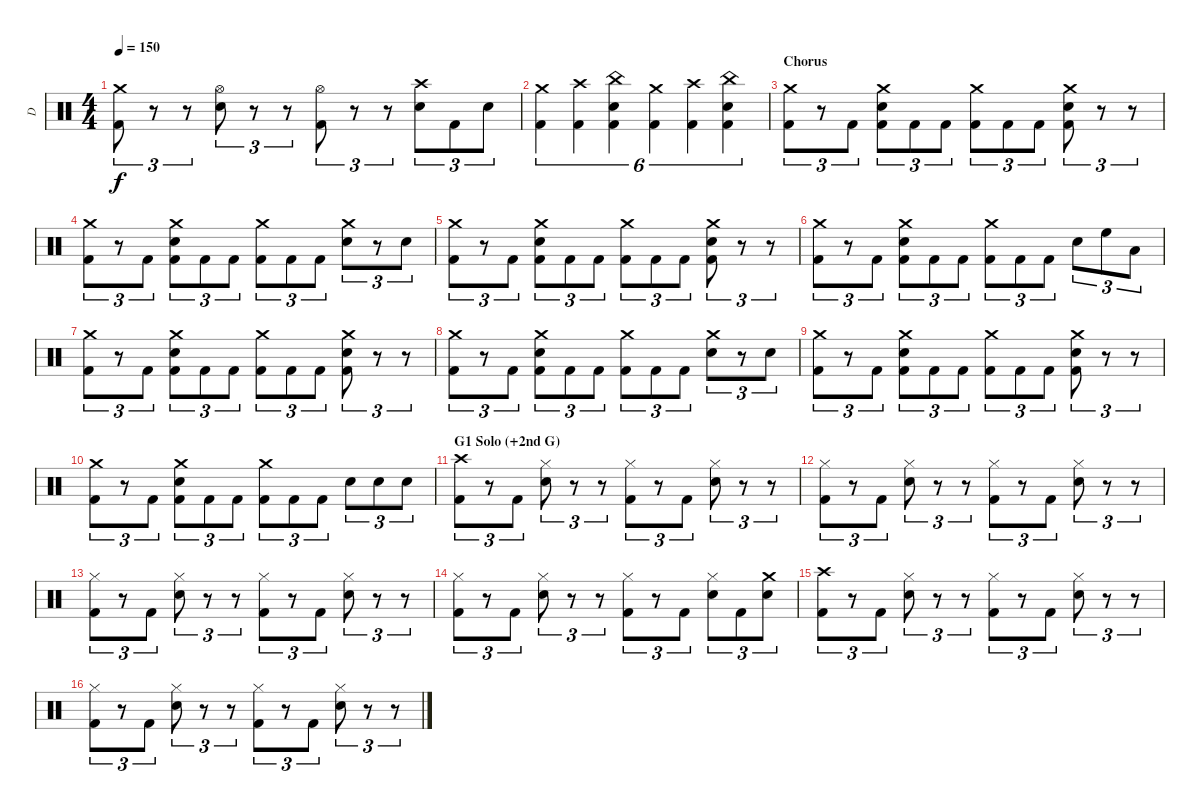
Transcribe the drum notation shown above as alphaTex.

\track ("D" "D") {instrument percussion}
\staff {score}
\articulation defaults
\ts (4 4)
\tempo 150
\clef neutral
\ks c
("Crash medium (hit)" "Kick (hit) 2").8{tu (3 2) dy f} r.8{tu (3 2)} r.8{tu (3 2)} ("Hi-Hat (open)" "Electric Snare (hit)").8{tu (3 2)} r.8{tu (3 2)} r.8{tu (3 2)} ("Hi-Hat (open)" "Kick (hit) 2").8{tu (3 2)} r.8{tu (3 2)} r.8{tu (3 2)} ("Crash high (hit)" "Electric Snare (hit)").8{tu (3 2)} "Kick (hit) 2".8{tu (3 2)} "Electric Snare (hit)".8{tu (3 2)} |
("Crash medium (hit)" "Kick (hit) 2").4{tu (6 4)} ("Crash high (hit)" "Kick (hit) 2").4{tu (6 4)} ("China (hit)" "Electric Snare (hit)" "Kick (hit) 2").4{tu (6 4)} ("Crash medium (hit)" "Kick (hit) 2").4{tu (6 4)} ("Crash high (hit)" "Kick (hit) 2").4{tu (6 4)} ("China (hit)" "Electric Snare (hit)" "Kick (hit) 2").4{tu (6 4)} |
\section ("" "Chorus")
("Crash medium (hit)" "Kick (hit) 2").8{tu (3 2)} r.8{tu (3 2)} "Kick (hit) 2".8{tu (3 2)} ("Crash medium (hit)" "Electric Snare (hit)" "Kick (hit) 2").8{tu (3 2)} "Kick (hit) 2".8{tu (3 2)} "Kick (hit) 2".8{tu (3 2)} ("Crash medium (hit)" "Kick (hit) 2").8{tu (3 2)} "Kick (hit) 2".8{tu (3 2)} "Kick (hit) 2".8{tu (3 2)} ("Crash medium (hit)" "Electric Snare (hit)" "Kick (hit) 2").8{tu (3 2)} r.8{tu (3 2)} r.8{tu (3 2)} |
("Crash medium (hit)" "Kick (hit) 2").8{tu (3 2)} r.8{tu (3 2)} "Kick (hit) 2".8{tu (3 2)} ("Crash medium (hit)" "Electric Snare (hit)" "Kick (hit) 2").8{tu (3 2)} "Kick (hit) 2".8{tu (3 2)} "Kick (hit) 2".8{tu (3 2)} ("Crash medium (hit)" "Kick (hit) 2").8{tu (3 2)} "Kick (hit) 2".8{tu (3 2)} "Kick (hit) 2".8{tu (3 2)} ("Crash medium (hit)" "Electric Snare (hit)").8{tu (3 2)} r.8{tu (3 2)} "Electric Snare (hit)".8{tu (3 2)} |
("Crash medium (hit)" "Kick (hit) 2").8{tu (3 2)} r.8{tu (3 2)} "Kick (hit) 2".8{tu (3 2)} ("Crash medium (hit)" "Electric Snare (hit)" "Kick (hit) 2").8{tu (3 2)} "Kick (hit) 2".8{tu (3 2)} "Kick (hit) 2".8{tu (3 2)} ("Crash medium (hit)" "Kick (hit) 2").8{tu (3 2)} "Kick (hit) 2".8{tu (3 2)} "Kick (hit) 2".8{tu (3 2)} ("Crash medium (hit)" "Electric Snare (hit)" "Kick (hit) 2").8{tu (3 2)} r.8{tu (3 2)} r.8{tu (3 2)} |
("Crash medium (hit)" "Kick (hit) 2").8{tu (3 2)} r.8{tu (3 2)} "Kick (hit) 2".8{tu (3 2)} ("Crash medium (hit)" "Electric Snare (hit)" "Kick (hit) 2").8{tu (3 2)} "Kick (hit) 2".8{tu (3 2)} "Kick (hit) 2".8{tu (3 2)} ("Crash medium (hit)" "Kick (hit) 2").8{tu (3 2)} "Kick (hit) 2".8{tu (3 2)} "Kick (hit) 2".8{tu (3 2)} "Electric Snare (hit)".8{tu (3 2)} "High Floor Tom (hit)".8{tu (3 2)} "Low Tom (hit)".8{tu (3 2)} |
("Crash medium (hit)" "Kick (hit) 2").8{tu (3 2)} r.8{tu (3 2)} "Kick (hit) 2".8{tu (3 2)} ("Crash medium (hit)" "Electric Snare (hit)" "Kick (hit) 2").8{tu (3 2)} "Kick (hit) 2".8{tu (3 2)} "Kick (hit) 2".8{tu (3 2)} ("Crash medium (hit)" "Kick (hit) 2").8{tu (3 2)} "Kick (hit) 2".8{tu (3 2)} "Kick (hit) 2".8{tu (3 2)} ("Crash medium (hit)" "Electric Snare (hit)" "Kick (hit) 2").8{tu (3 2)} r.8{tu (3 2)} r.8{tu (3 2)} |
("Crash medium (hit)" "Kick (hit) 2").8{tu (3 2)} r.8{tu (3 2)} "Kick (hit) 2".8{tu (3 2)} ("Crash medium (hit)" "Electric Snare (hit)" "Kick (hit) 2").8{tu (3 2)} "Kick (hit) 2".8{tu (3 2)} "Kick (hit) 2".8{tu (3 2)} ("Crash medium (hit)" "Kick (hit) 2").8{tu (3 2)} "Kick (hit) 2".8{tu (3 2)} "Kick (hit) 2".8{tu (3 2)} ("Crash medium (hit)" "Electric Snare (hit)").8{tu (3 2)} r.8{tu (3 2)} "Electric Snare (hit)".8{tu (3 2)} |
("Crash medium (hit)" "Kick (hit) 2").8{tu (3 2)} r.8{tu (3 2)} "Kick (hit) 2".8{tu (3 2)} ("Crash medium (hit)" "Electric Snare (hit)" "Kick (hit) 2").8{tu (3 2)} "Kick (hit) 2".8{tu (3 2)} "Kick (hit) 2".8{tu (3 2)} ("Crash medium (hit)" "Kick (hit) 2").8{tu (3 2)} "Kick (hit) 2".8{tu (3 2)} "Kick (hit) 2".8{tu (3 2)} ("Crash medium (hit)" "Electric Snare (hit)" "Kick (hit) 2").8{tu (3 2)} r.8{tu (3 2)} r.8{tu (3 2)} |
("Crash medium (hit)" "Kick (hit) 2").8{tu (3 2)} r.8{tu (3 2)} "Kick (hit) 2".8{tu (3 2)} ("Crash medium (hit)" "Electric Snare (hit)" "Kick (hit) 2").8{tu (3 2)} "Kick (hit) 2".8{tu (3 2)} "Kick (hit) 2".8{tu (3 2)} ("Crash medium (hit)" "Kick (hit) 2").8{tu (3 2)} "Kick (hit) 2".8{tu (3 2)} "Kick (hit) 2".8{tu (3 2)} "Electric Snare (hit)".8{tu (3 2)} "Electric Snare (hit)".8{tu (3 2)} "Electric Snare (hit)".8{tu (3 2)} |
\section ("" "G1 Solo (+2nd G)")
("Crash high (hit)" "Kick (hit) 2").8{tu (3 2)} r.8{tu (3 2)} "Kick (hit) 2".8{tu (3 2)} ("Hi-Hat (closed)" "Electric Snare (hit)").8{tu (3 2)} r.8{tu (3 2)} r.8{tu (3 2)} ("Hi-Hat (closed)" "Kick (hit) 2").8{tu (3 2)} r.8{tu (3 2)} "Kick (hit) 2".8{tu (3 2)} ("Hi-Hat (closed)" "Electric Snare (hit)").8{tu (3 2)} r.8{tu (3 2)} r.8{tu (3 2)} |
("Hi-Hat (closed)" "Kick (hit) 2").8{tu (3 2)} r.8{tu (3 2)} "Kick (hit) 2".8{tu (3 2)} ("Hi-Hat (closed)" "Electric Snare (hit)").8{tu (3 2)} r.8{tu (3 2)} r.8{tu (3 2)} ("Hi-Hat (closed)" "Kick (hit) 2").8{tu (3 2)} r.8{tu (3 2)} "Kick (hit) 2".8{tu (3 2)} ("Hi-Hat (closed)" "Electric Snare (hit)").8{tu (3 2)} r.8{tu (3 2)} r.8{tu (3 2)} |
("Hi-Hat (closed)" "Kick (hit) 2").8{tu (3 2)} r.8{tu (3 2)} "Kick (hit) 2".8{tu (3 2)} ("Hi-Hat (closed)" "Electric Snare (hit)").8{tu (3 2)} r.8{tu (3 2)} r.8{tu (3 2)} ("Hi-Hat (closed)" "Kick (hit) 2").8{tu (3 2)} r.8{tu (3 2)} "Kick (hit) 2".8{tu (3 2)} ("Hi-Hat (closed)" "Electric Snare (hit)").8{tu (3 2)} r.8{tu (3 2)} r.8{tu (3 2)} |
("Hi-Hat (closed)" "Kick (hit) 2").8{tu (3 2)} r.8{tu (3 2)} "Kick (hit) 2".8{tu (3 2)} ("Hi-Hat (closed)" "Electric Snare (hit)").8{tu (3 2)} r.8{tu (3 2)} r.8{tu (3 2)} ("Hi-Hat (closed)" "Kick (hit) 2").8{tu (3 2)} r.8{tu (3 2)} "Kick (hit) 2".8{tu (3 2)} ("Hi-Hat (closed)" "Electric Snare (hit)").8{tu (3 2)} "Kick (hit) 2".8{tu (3 2)} ("Crash medium (hit)" "Electric Snare (hit)").8{tu (3 2)} |
("Crash high (hit)" "Kick (hit) 2").8{tu (3 2)} r.8{tu (3 2)} "Kick (hit) 2".8{tu (3 2)} ("Hi-Hat (closed)" "Electric Snare (hit)").8{tu (3 2)} r.8{tu (3 2)} r.8{tu (3 2)} ("Hi-Hat (closed)" "Kick (hit) 2").8{tu (3 2)} r.8{tu (3 2)} "Kick (hit) 2".8{tu (3 2)} ("Hi-Hat (closed)" "Electric Snare (hit)").8{tu (3 2)} r.8{tu (3 2)} r.8{tu (3 2)} |
("Hi-Hat (closed)" "Kick (hit) 2").8{tu (3 2)} r.8{tu (3 2)} "Kick (hit) 2".8{tu (3 2)} ("Hi-Hat (closed)" "Electric Snare (hit)").8{tu (3 2)} r.8{tu (3 2)} r.8{tu (3 2)} ("Hi-Hat (closed)" "Kick (hit) 2").8{tu (3 2)} r.8{tu (3 2)} "Kick (hit) 2".8{tu (3 2)} ("Hi-Hat (closed)" "Electric Snare (hit)").8{tu (3 2)} r.8{tu (3 2)} r.8{tu (3 2)}
